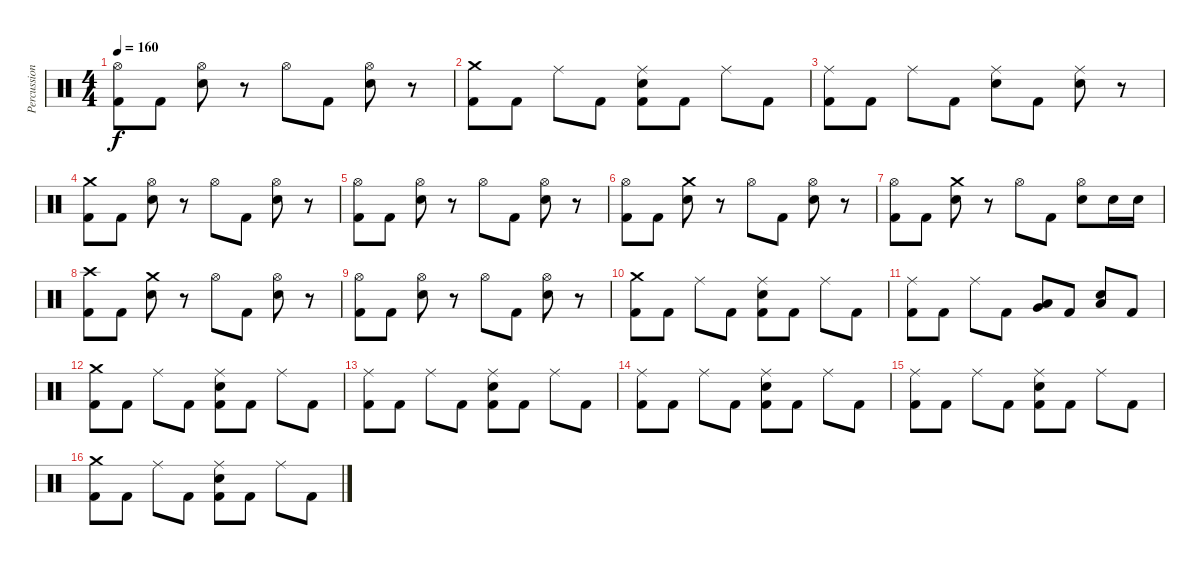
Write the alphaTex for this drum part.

\track ("Percussion" "Percussion") {instrument percussion}
\staff {score}
\articulation defaults
\ts (4 4)
\tempo 160
\clef neutral
\ks c
("Kick (hit) 2" "Hi-Hat (open)").8{dy f} "Kick (hit) 2".8 ("Snare (hit) 2" "Hi-Hat (open)").8 r.8 "Hi-Hat (open)".8 "Kick (hit) 2".8 ("Snare (hit) 2" "Hi-Hat (open)").8 r.8 |
("Kick (hit) 2" "Crash medium (hit)").8 "Kick (hit) 2".8 "Ride (middle)".8 "Kick (hit) 2".8 ("Kick (hit) 2" "Snare (hit) 2" "Ride (middle)").8 "Kick (hit) 2".8 "Ride (middle)".8 "Kick (hit) 2".8 |
("Kick (hit) 2" "Ride (middle)").8 "Kick (hit) 2".8 "Ride (middle)".8 "Kick (hit) 2".8 ("Snare (hit) 2" "Ride (middle)").8 "Kick (hit) 2".8 ("Snare (hit) 2" "Ride (middle)").8 r.8 |
("Kick (hit) 2" "Crash medium (hit)").8 "Kick (hit) 2".8 ("Snare (hit) 2" "Hi-Hat (open)").8 r.8 "Hi-Hat (open)".8 "Kick (hit) 2".8 ("Snare (hit) 2" "Hi-Hat (open)").8 r.8 |
("Kick (hit) 2" "Hi-Hat (open)").8 "Kick (hit) 2".8 ("Snare (hit) 2" "Hi-Hat (open)").8 r.8 "Hi-Hat (open)".8 "Kick (hit) 2".8 ("Snare (hit) 2" "Hi-Hat (open)").8 r.8 |
("Kick (hit) 2" "Hi-Hat (open)").8 "Kick (hit) 2".8 ("Snare (hit) 2" "Crash medium (hit)").8 r.8 "Hi-Hat (open)".8 "Kick (hit) 2".8 ("Snare (hit) 2" "Hi-Hat (open)").8 r.8 |
("Kick (hit) 2" "Hi-Hat (open)").8 "Kick (hit) 2".8 ("Snare (hit) 2" "Crash medium (hit)").8 r.8 "Hi-Hat (open)".8 "Kick (hit) 2".8 ("Snare (hit) 2" "Hi-Hat (open)").8 "Snare (hit) 2".16 "Snare (hit) 2".16 |
("Kick (hit) 2" "Crash high (hit)").8 "Kick (hit) 2".8 ("Snare (hit) 2" "Crash medium (hit)").8 r.8 "Hi-Hat (open)".8 "Kick (hit) 2".8 ("Snare (hit) 2" "Hi-Hat (open)").8 r.8 |
("Kick (hit) 2" "Hi-Hat (open)").8 "Kick (hit) 2".8 ("Snare (hit) 2" "Hi-Hat (open)").8 r.8 "Hi-Hat (open)".8 "Kick (hit) 2".8 ("Snare (hit) 2" "Hi-Hat (open)").8 r.8 |
("Kick (hit) 2" "Crash medium (hit)").8 "Kick (hit) 2".8 "Ride (middle)".8 "Kick (hit) 2".8 ("Kick (hit) 2" "Snare (hit) 2" "Ride (middle)").8 "Kick (hit) 2".8 "Ride (middle)".8 "Kick (hit) 2".8 |
("Kick (hit) 2" "Ride (middle)").8 "Kick (hit) 2".8 "Ride (middle)".8 "Kick (hit) 2".8 ("Low Tom (hit)" "Very Low Tom (hit)").8 "Kick (hit) 2".8 ("Low Tom (hit)" "Snare (hit) 2").8 "Kick (hit) 2".8 |
("Kick (hit) 2" "Crash medium (hit)").8 "Kick (hit) 2".8 "Ride (middle)".8 "Kick (hit) 2".8 ("Kick (hit) 2" "Snare (hit) 2" "Ride (middle)").8 "Kick (hit) 2".8 "Ride (middle)".8 "Kick (hit) 2".8 |
("Kick (hit) 2" "Ride (middle)").8 "Kick (hit) 2".8 "Ride (middle)".8 "Kick (hit) 2".8 ("Kick (hit) 2" "Snare (hit) 2" "Ride (middle)").8 "Kick (hit) 2".8 "Ride (middle)".8 "Kick (hit) 2".8 |
("Kick (hit) 2" "Ride (middle)").8 "Kick (hit) 2".8 "Ride (middle)".8 "Kick (hit) 2".8 ("Kick (hit) 2" "Snare (hit) 2" "Ride (middle)").8 "Kick (hit) 2".8 "Ride (middle)".8 "Kick (hit) 2".8 |
("Kick (hit) 2" "Ride (middle)").8 "Kick (hit) 2".8 "Ride (middle)".8 "Kick (hit) 2".8 ("Kick (hit) 2" "Snare (hit) 2" "Ride (middle)").8 "Kick (hit) 2".8 "Ride (middle)".8 "Kick (hit) 2".8 |
("Kick (hit) 2" "Crash medium (hit)").8 "Kick (hit) 2".8 "Ride (middle)".8 "Kick (hit) 2".8 ("Kick (hit) 2" "Snare (hit) 2" "Ride (middle)").8 "Kick (hit) 2".8 "Ride (middle)".8 "Kick (hit) 2".8
